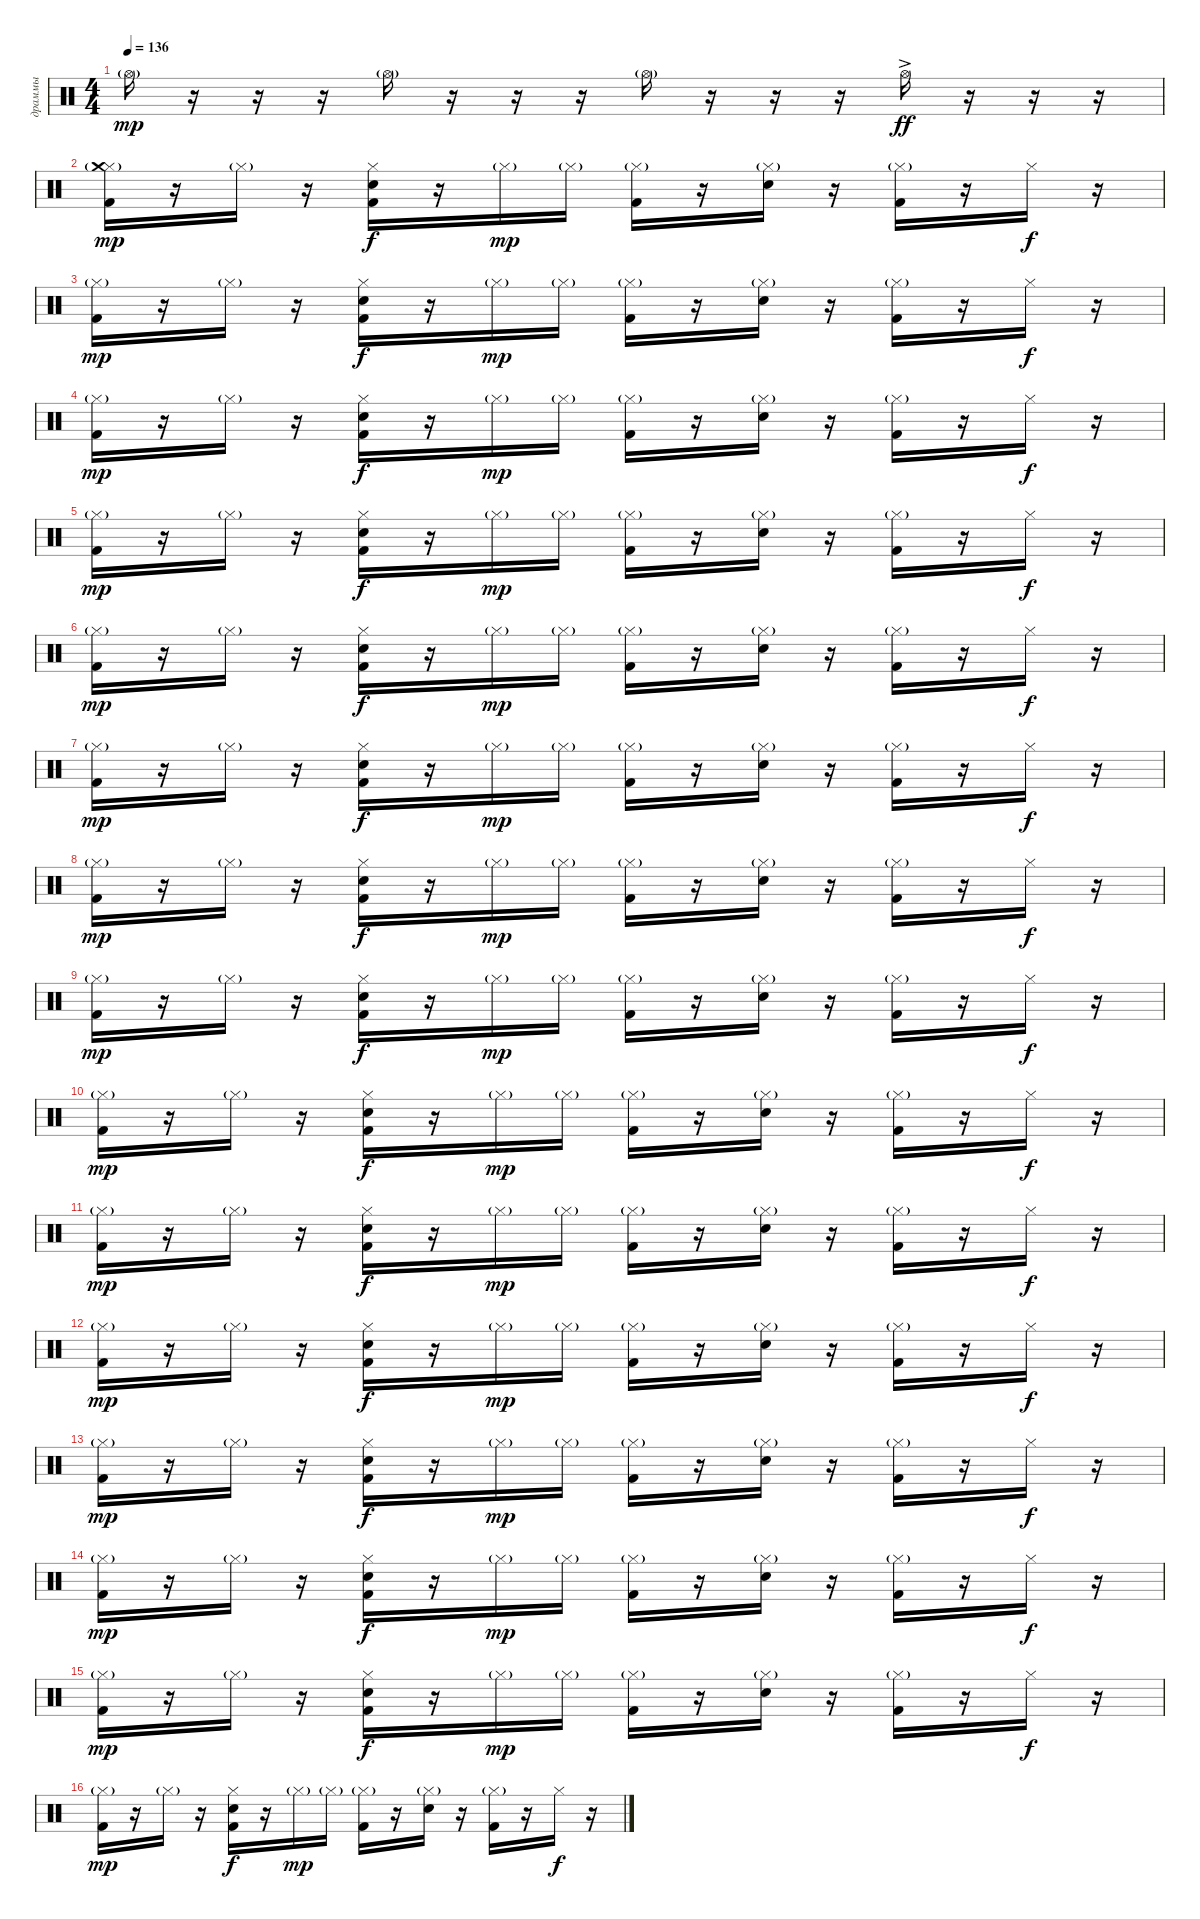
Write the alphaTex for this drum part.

\track ("драммы" "драммы") {instrument percussion}
\staff {score}
\articulation defaults
\ts (4 4)
\tempo 136
\clef neutral
\ks c "Hi-Hat (open)"{g}.16{dy mp}
r.16 r.16 r.16 "Hi-Hat (open)"{g}.16 r.16 r.16 r.16 "Hi-Hat (open)"{g}.16 r.16 r.16 r.16 "Hi-Hat (open)"{ac}.16{dy ff} r.16 r.16 r.16 |
("Kick (hit) 2" "Hi-Hat (closed)"{g} "Crash medium (hit)").16{dy mp} r.16 "Hi-Hat (closed)"{g}.16 r.16 ("Snare (hit) 2" "Kick (hit) 2" "Hi-Hat (closed)").16{dy f} r.16 "Hi-Hat (closed)"{g}.16{dy mp} "Hi-Hat (closed)"{g}.16 ("Kick (hit) 2" "Hi-Hat (closed)"{g}).16 r.16 ("Snare (hit) 2" "Hi-Hat (closed)"{g}).16 r.16 ("Kick (hit) 2" "Hi-Hat (closed)"{g}).16 r.16 "Hi-Hat (closed)".16{dy f} r.16 |
("Kick (hit) 2" "Hi-Hat (closed)"{g}).16{dy mp} r.16 "Hi-Hat (closed)"{g}.16 r.16 ("Snare (hit) 2" "Kick (hit) 2" "Hi-Hat (closed)").16{dy f} r.16 "Hi-Hat (closed)"{g}.16{dy mp} "Hi-Hat (closed)"{g}.16 ("Kick (hit) 2" "Hi-Hat (closed)"{g}).16 r.16 ("Snare (hit) 2" "Hi-Hat (closed)"{g}).16 r.16 ("Kick (hit) 2" "Hi-Hat (closed)"{g}).16 r.16 "Hi-Hat (closed)".16{dy f} r.16 |
("Kick (hit) 2" "Hi-Hat (closed)"{g}).16{dy mp} r.16 "Hi-Hat (closed)"{g}.16 r.16 ("Snare (hit) 2" "Kick (hit) 2" "Hi-Hat (closed)").16{dy f} r.16 "Hi-Hat (closed)"{g}.16{dy mp} "Hi-Hat (closed)"{g}.16 ("Kick (hit) 2" "Hi-Hat (closed)"{g}).16 r.16 ("Snare (hit) 2" "Hi-Hat (closed)"{g}).16 r.16 ("Kick (hit) 2" "Hi-Hat (closed)"{g}).16 r.16 "Hi-Hat (closed)".16{dy f} r.16 |
("Kick (hit) 2" "Hi-Hat (closed)"{g}).16{dy mp} r.16 "Hi-Hat (closed)"{g}.16 r.16 ("Snare (hit) 2" "Kick (hit) 2" "Hi-Hat (closed)").16{dy f} r.16 "Hi-Hat (closed)"{g}.16{dy mp} "Hi-Hat (closed)"{g}.16 ("Kick (hit) 2" "Hi-Hat (closed)"{g}).16 r.16 ("Snare (hit) 2" "Hi-Hat (closed)"{g}).16 r.16 ("Kick (hit) 2" "Hi-Hat (closed)"{g}).16 r.16 "Hi-Hat (closed)".16{dy f} r.16 |
("Kick (hit) 2" "Hi-Hat (closed)"{g}).16{dy mp} r.16 "Hi-Hat (closed)"{g}.16 r.16 ("Snare (hit) 2" "Kick (hit) 2" "Hi-Hat (closed)").16{dy f} r.16 "Hi-Hat (closed)"{g}.16{dy mp} "Hi-Hat (closed)"{g}.16 ("Kick (hit) 2" "Hi-Hat (closed)"{g}).16 r.16 ("Snare (hit) 2" "Hi-Hat (closed)"{g}).16 r.16 ("Kick (hit) 2" "Hi-Hat (closed)"{g}).16 r.16 "Hi-Hat (closed)".16{dy f} r.16 |
("Kick (hit) 2" "Hi-Hat (closed)"{g}).16{dy mp} r.16 "Hi-Hat (closed)"{g}.16 r.16 ("Snare (hit) 2" "Kick (hit) 2" "Hi-Hat (closed)").16{dy f} r.16 "Hi-Hat (closed)"{g}.16{dy mp} "Hi-Hat (closed)"{g}.16 ("Kick (hit) 2" "Hi-Hat (closed)"{g}).16 r.16 ("Snare (hit) 2" "Hi-Hat (closed)"{g}).16 r.16 ("Kick (hit) 2" "Hi-Hat (closed)"{g}).16 r.16 "Hi-Hat (closed)".16{dy f} r.16 |
("Kick (hit) 2" "Hi-Hat (closed)"{g}).16{dy mp} r.16 "Hi-Hat (closed)"{g}.16 r.16 ("Snare (hit) 2" "Kick (hit) 2" "Hi-Hat (closed)").16{dy f} r.16 "Hi-Hat (closed)"{g}.16{dy mp} "Hi-Hat (closed)"{g}.16 ("Kick (hit) 2" "Hi-Hat (closed)"{g}).16 r.16 ("Snare (hit) 2" "Hi-Hat (closed)"{g}).16 r.16 ("Kick (hit) 2" "Hi-Hat (closed)"{g}).16 r.16 "Hi-Hat (closed)".16{dy f} r.16 |
("Kick (hit) 2" "Hi-Hat (closed)"{g}).16{dy mp} r.16 "Hi-Hat (closed)"{g}.16 r.16 ("Snare (hit) 2" "Kick (hit) 2" "Hi-Hat (closed)").16{dy f} r.16 "Hi-Hat (closed)"{g}.16{dy mp} "Hi-Hat (closed)"{g}.16 ("Kick (hit) 2" "Hi-Hat (closed)"{g}).16 r.16 ("Snare (hit) 2" "Hi-Hat (closed)"{g}).16 r.16 ("Kick (hit) 2" "Hi-Hat (closed)"{g}).16 r.16 "Hi-Hat (closed)".16{dy f} r.16 |
("Kick (hit) 2" "Hi-Hat (closed)"{g}).16{dy mp} r.16 "Hi-Hat (closed)"{g}.16 r.16 ("Snare (hit) 2" "Kick (hit) 2" "Hi-Hat (closed)").16{dy f} r.16 "Hi-Hat (closed)"{g}.16{dy mp} "Hi-Hat (closed)"{g}.16 ("Kick (hit) 2" "Hi-Hat (closed)"{g}).16 r.16 ("Snare (hit) 2" "Hi-Hat (closed)"{g}).16 r.16 ("Kick (hit) 2" "Hi-Hat (closed)"{g}).16 r.16 "Hi-Hat (closed)".16{dy f} r.16 |
("Kick (hit) 2" "Hi-Hat (closed)"{g}).16{dy mp} r.16 "Hi-Hat (closed)"{g}.16 r.16 ("Snare (hit) 2" "Kick (hit) 2" "Hi-Hat (closed)").16{dy f} r.16 "Hi-Hat (closed)"{g}.16{dy mp} "Hi-Hat (closed)"{g}.16 ("Kick (hit) 2" "Hi-Hat (closed)"{g}).16 r.16 ("Snare (hit) 2" "Hi-Hat (closed)"{g}).16 r.16 ("Kick (hit) 2" "Hi-Hat (closed)"{g}).16 r.16 "Hi-Hat (closed)".16{dy f} r.16 |
("Kick (hit) 2" "Hi-Hat (closed)"{g}).16{dy mp} r.16 "Hi-Hat (closed)"{g}.16 r.16 ("Snare (hit) 2" "Kick (hit) 2" "Hi-Hat (closed)").16{dy f} r.16 "Hi-Hat (closed)"{g}.16{dy mp} "Hi-Hat (closed)"{g}.16 ("Kick (hit) 2" "Hi-Hat (closed)"{g}).16 r.16 ("Snare (hit) 2" "Hi-Hat (closed)"{g}).16 r.16 ("Kick (hit) 2" "Hi-Hat (closed)"{g}).16 r.16 "Hi-Hat (closed)".16{dy f} r.16 |
("Kick (hit) 2" "Hi-Hat (closed)"{g}).16{dy mp} r.16 "Hi-Hat (closed)"{g}.16 r.16 ("Snare (hit) 2" "Kick (hit) 2" "Hi-Hat (closed)").16{dy f} r.16 "Hi-Hat (closed)"{g}.16{dy mp} "Hi-Hat (closed)"{g}.16 ("Kick (hit) 2" "Hi-Hat (closed)"{g}).16 r.16 ("Snare (hit) 2" "Hi-Hat (closed)"{g}).16 r.16 ("Kick (hit) 2" "Hi-Hat (closed)"{g}).16 r.16 "Hi-Hat (closed)".16{dy f} r.16 |
("Kick (hit) 2" "Hi-Hat (closed)"{g}).16{dy mp} r.16 "Hi-Hat (closed)"{g}.16 r.16 ("Snare (hit) 2" "Kick (hit) 2" "Hi-Hat (closed)").16{dy f} r.16 "Hi-Hat (closed)"{g}.16{dy mp} "Hi-Hat (closed)"{g}.16 ("Kick (hit) 2" "Hi-Hat (closed)"{g}).16 r.16 ("Snare (hit) 2" "Hi-Hat (closed)"{g}).16 r.16 ("Kick (hit) 2" "Hi-Hat (closed)"{g}).16 r.16 "Hi-Hat (closed)".16{dy f} r.16 |
("Kick (hit) 2" "Hi-Hat (closed)"{g}).16{dy mp} r.16 "Hi-Hat (closed)"{g}.16 r.16 ("Snare (hit) 2" "Kick (hit) 2" "Hi-Hat (closed)").16{dy f} r.16 "Hi-Hat (closed)"{g}.16{dy mp} "Hi-Hat (closed)"{g}.16 ("Kick (hit) 2" "Hi-Hat (closed)"{g}).16 r.16 ("Snare (hit) 2" "Hi-Hat (closed)"{g}).16 r.16 ("Kick (hit) 2" "Hi-Hat (closed)"{g}).16 r.16 "Hi-Hat (closed)".16{dy f} r.16 |
("Kick (hit) 2" "Hi-Hat (closed)"{g}).16{dy mp} r.16 "Hi-Hat (closed)"{g}.16 r.16 ("Snare (hit) 2" "Kick (hit) 2" "Hi-Hat (closed)").16{dy f} r.16 "Hi-Hat (closed)"{g}.16{dy mp} "Hi-Hat (closed)"{g}.16 ("Kick (hit) 2" "Hi-Hat (closed)"{g}).16 r.16 ("Snare (hit) 2" "Hi-Hat (closed)"{g}).16 r.16 ("Kick (hit) 2" "Hi-Hat (closed)"{g}).16 r.16 "Hi-Hat (closed)".16{dy f} r.16
